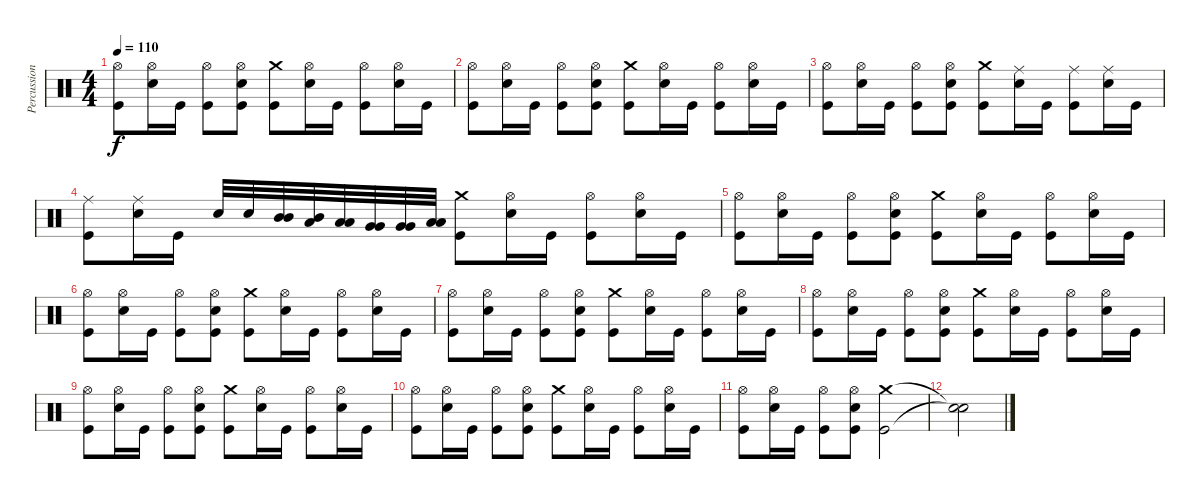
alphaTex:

\track ("Percussion" "Percussion") {instrument percussion}
\staff {score}
\articulation defaults
\ts (4 4)
\tempo 110
\clef neutral
\ks c
("Hi-Hat (open)" "Kick (hit)").8{dy f} ("Hi-Hat (open)" "Electric Snare (hit)").16 "Kick (hit)".16 ("Hi-Hat (open)" "Kick (hit)").8 ("Hi-Hat (open)" "Electric Snare (hit)" "Kick (hit)").8 ("Crash medium (hit)" "Kick (hit)").8 ("Hi-Hat (open)" "Electric Snare (hit)").16 "Kick (hit)".16 ("Hi-Hat (open)" "Kick (hit)").8 ("Hi-Hat (open)" "Electric Snare (hit)").16 "Kick (hit)".16 |
("Hi-Hat (open)" "Kick (hit)").8 ("Hi-Hat (open)" "Electric Snare (hit)").16 "Kick (hit)".16 ("Hi-Hat (open)" "Kick (hit)").8 ("Hi-Hat (open)" "Electric Snare (hit)" "Kick (hit)").8 ("Crash medium (hit)" "Kick (hit)").8 ("Hi-Hat (open)" "Electric Snare (hit)").16 "Kick (hit)".16 ("Hi-Hat (open)" "Kick (hit)").8 ("Hi-Hat (open)" "Electric Snare (hit)").16 "Kick (hit)".16 |
("Hi-Hat (open)" "Kick (hit)").8 ("Hi-Hat (open)" "Electric Snare (hit)").16 "Kick (hit)".16 ("Hi-Hat (open)" "Kick (hit)").8 ("Hi-Hat (open)" "Electric Snare (hit)" "Kick (hit)").8 ("Crash medium (hit)" "Kick (hit)").8 ("Ride (middle)" "Electric Snare (hit)").16 "Kick (hit)".16 ("Ride (middle)" "Kick (hit)").8 ("Ride (middle)" "Electric Snare (hit)").16 "Kick (hit)".16 |
("Ride (middle)" "Kick (hit)").8 ("Ride (middle)" "Electric Snare (hit)").16 "Kick (hit)".16 "Electric Snare (hit)".32 "Electric Snare (hit)".32 ("Mid Tom (hit)" "Mid Tom (hit)").32 ("Mid Tom (hit)" "Low Tom (hit)").32 ("Low Tom (hit)" "Low Tom (hit)").32 ("Very Low Tom (hit)" "Very Low Tom (hit)").32 ("Very Low Tom (hit)" "Very Low Tom (hit)").32 ("Low Floor Tom (hit)" "Low Floor Tom (hit)").32 ("Crash medium (hit)" "Kick (hit)").8 ("Hi-Hat (open)" "Electric Snare (hit)").16 "Kick (hit)".16 ("Hi-Hat (open)" "Kick (hit)").8 ("Hi-Hat (open)" "Electric Snare (hit)").16 "Kick (hit)".16 |
("Hi-Hat (open)" "Kick (hit)").8 ("Hi-Hat (open)" "Electric Snare (hit)").16 "Kick (hit)".16 ("Hi-Hat (open)" "Kick (hit)").8 ("Hi-Hat (open)" "Electric Snare (hit)" "Kick (hit)").8 ("Crash medium (hit)" "Kick (hit)").8 ("Hi-Hat (open)" "Electric Snare (hit)").16 "Kick (hit)".16 ("Hi-Hat (open)" "Kick (hit)").8 ("Hi-Hat (open)" "Electric Snare (hit)").16 "Kick (hit)".16 |
("Hi-Hat (open)" "Kick (hit)").8 ("Hi-Hat (open)" "Electric Snare (hit)").16 "Kick (hit)".16 ("Hi-Hat (open)" "Kick (hit)").8 ("Hi-Hat (open)" "Electric Snare (hit)" "Kick (hit)").8 ("Crash medium (hit)" "Kick (hit)").8 ("Hi-Hat (open)" "Electric Snare (hit)").16 "Kick (hit)".16 ("Hi-Hat (open)" "Kick (hit)").8 ("Hi-Hat (open)" "Electric Snare (hit)").16 "Kick (hit)".16 |
("Hi-Hat (open)" "Kick (hit)").8 ("Hi-Hat (open)" "Electric Snare (hit)").16 "Kick (hit)".16 ("Hi-Hat (open)" "Kick (hit)").8 ("Hi-Hat (open)" "Electric Snare (hit)" "Kick (hit)").8 ("Crash medium (hit)" "Kick (hit)").8 ("Hi-Hat (open)" "Electric Snare (hit)").16 "Kick (hit)".16 ("Hi-Hat (open)" "Kick (hit)").8 ("Hi-Hat (open)" "Electric Snare (hit)").16 "Kick (hit)".16 |
("Hi-Hat (open)" "Kick (hit)").8 ("Hi-Hat (open)" "Electric Snare (hit)").16 "Kick (hit)".16 ("Hi-Hat (open)" "Kick (hit)").8 ("Hi-Hat (open)" "Electric Snare (hit)" "Kick (hit)").8 ("Crash medium (hit)" "Kick (hit)").8 ("Hi-Hat (open)" "Electric Snare (hit)").16 "Kick (hit)".16 ("Hi-Hat (open)" "Kick (hit)").8 ("Hi-Hat (open)" "Electric Snare (hit)").16 "Kick (hit)".16 |
("Hi-Hat (open)" "Kick (hit)").8 ("Hi-Hat (open)" "Electric Snare (hit)").16 "Kick (hit)".16 ("Hi-Hat (open)" "Kick (hit)").8 ("Hi-Hat (open)" "Electric Snare (hit)" "Kick (hit)").8 ("Crash medium (hit)" "Kick (hit)").8 ("Hi-Hat (open)" "Electric Snare (hit)").16 "Kick (hit)".16 ("Hi-Hat (open)" "Kick (hit)").8 ("Hi-Hat (open)" "Electric Snare (hit)").16 "Kick (hit)".16 |
("Hi-Hat (open)" "Kick (hit)").8 ("Hi-Hat (open)" "Electric Snare (hit)").16 "Kick (hit)".16 ("Hi-Hat (open)" "Kick (hit)").8 ("Hi-Hat (open)" "Electric Snare (hit)" "Kick (hit)").8 ("Crash medium (hit)" "Kick (hit)").8 ("Hi-Hat (open)" "Electric Snare (hit)").16 "Kick (hit)".16 ("Hi-Hat (open)" "Kick (hit)").8 ("Hi-Hat (open)" "Electric Snare (hit)").16 "Kick (hit)".16 |
("Hi-Hat (open)" "Kick (hit)").8 ("Hi-Hat (open)" "Electric Snare (hit)").16 "Kick (hit)".16 ("Hi-Hat (open)" "Kick (hit)").8 ("Hi-Hat (open)" "Electric Snare (hit)" "Kick (hit)").8 ("Crash medium (hit)" "Kick (hit)").2 |
("Snare (hit)"{t} "Snare (hit)"{t}).2
